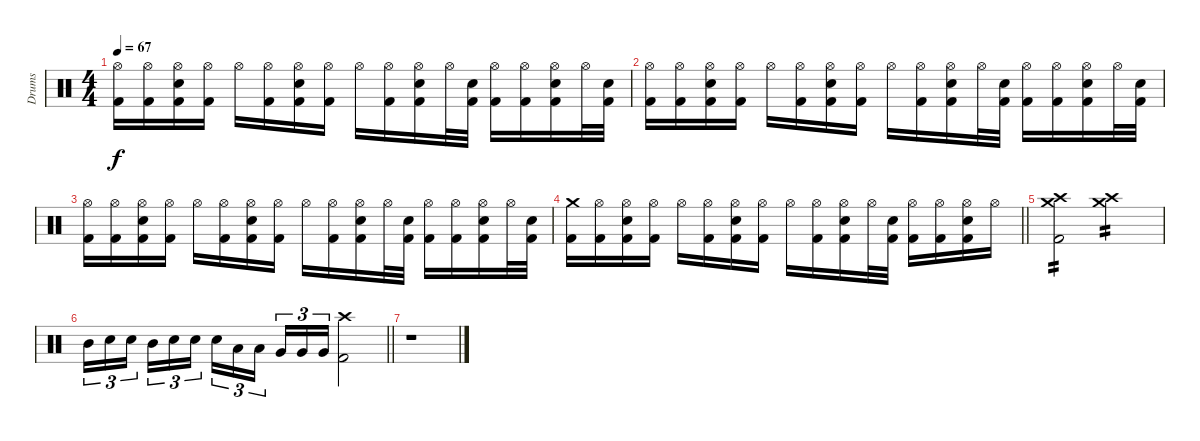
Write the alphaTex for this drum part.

\track ("Drums" "Drums") {instrument percussion}
\staff {score}
\articulation defaults
\ts (4 4)
\tempo 67
\clef neutral
\ks c
("Kick (hit) 2" "Hi-Hat (open)").16{dy f} ("Kick (hit) 2" "Hi-Hat (open)").16 ("Kick (hit) 2" "Snare (hit) 2" "Hi-Hat (open)").16 ("Kick (hit) 2" "Hi-Hat (open)").16 "Hi-Hat (open)".16 ("Kick (hit) 2" "Hi-Hat (open)").16 ("Kick (hit) 2" "Snare (hit) 2" "Hi-Hat (open)").16 ("Kick (hit) 2" "Hi-Hat (open)").16 "Hi-Hat (open)".16 ("Kick (hit) 2" "Hi-Hat (open)").16 ("Kick (hit) 2" "Snare (hit) 2" "Hi-Hat (open)").16 "Hi-Hat (open)".32 ("Kick (hit) 2" "Snare (hit) 2").32 ("Kick (hit) 2" "Hi-Hat (open)").16 ("Kick (hit) 2" "Hi-Hat (open)").16 ("Kick (hit) 2" "Snare (hit) 2" "Hi-Hat (open)").16 "Hi-Hat (open)".32 ("Kick (hit) 2" "Snare (hit) 2").32 |
("Kick (hit) 2" "Hi-Hat (open)").16 ("Kick (hit) 2" "Hi-Hat (open)").16 ("Kick (hit) 2" "Snare (hit) 2" "Hi-Hat (open)").16 ("Kick (hit) 2" "Hi-Hat (open)").16 "Hi-Hat (open)".16 ("Kick (hit) 2" "Hi-Hat (open)").16 ("Kick (hit) 2" "Snare (hit) 2" "Hi-Hat (open)").16 ("Kick (hit) 2" "Hi-Hat (open)").16 "Hi-Hat (open)".16 ("Kick (hit) 2" "Hi-Hat (open)").16 ("Kick (hit) 2" "Snare (hit) 2" "Hi-Hat (open)").16 "Hi-Hat (open)".32 ("Kick (hit) 2" "Snare (hit) 2").32 ("Kick (hit) 2" "Hi-Hat (open)").16 ("Kick (hit) 2" "Hi-Hat (open)").16 ("Kick (hit) 2" "Snare (hit) 2" "Hi-Hat (open)").16 "Hi-Hat (open)".32 ("Kick (hit) 2" "Snare (hit) 2").32 |
("Kick (hit) 2" "Hi-Hat (open)").16 ("Kick (hit) 2" "Hi-Hat (open)").16 ("Kick (hit) 2" "Snare (hit) 2" "Hi-Hat (open)").16 ("Kick (hit) 2" "Hi-Hat (open)").16 "Hi-Hat (open)".16 ("Kick (hit) 2" "Hi-Hat (open)").16 ("Kick (hit) 2" "Snare (hit) 2" "Hi-Hat (open)").16 ("Kick (hit) 2" "Hi-Hat (open)").16 "Hi-Hat (open)".16 ("Kick (hit) 2" "Hi-Hat (open)").16 ("Kick (hit) 2" "Snare (hit) 2" "Hi-Hat (open)").16 "Hi-Hat (open)".32 ("Kick (hit) 2" "Snare (hit) 2").32 ("Kick (hit) 2" "Hi-Hat (open)").16 ("Kick (hit) 2" "Hi-Hat (open)").16 ("Kick (hit) 2" "Snare (hit) 2" "Hi-Hat (open)").16 "Hi-Hat (open)".32 ("Kick (hit) 2" "Snare (hit) 2").32 |
\barLineRight lightlight
("Kick (hit) 2" "Crash medium (hit)").16 ("Kick (hit) 2" "Hi-Hat (open)").16 ("Kick (hit) 2" "Snare (hit) 2" "Hi-Hat (open)").16 ("Kick (hit) 2" "Hi-Hat (open)").16 "Hi-Hat (open)".16 ("Kick (hit) 2" "Hi-Hat (open)").16 ("Kick (hit) 2" "Snare (hit) 2" "Hi-Hat (open)").16 ("Kick (hit) 2" "Hi-Hat (open)").16 "Hi-Hat (open)".16 ("Kick (hit) 2" "Hi-Hat (open)").16 ("Kick (hit) 2" "Snare (hit) 2" "Hi-Hat (open)").16 "Hi-Hat (open)".32 ("Kick (hit) 2" "Snare (hit) 2").32 ("Kick (hit) 2" "Hi-Hat (open)").16 ("Kick (hit) 2" "Hi-Hat (open)").16 ("Kick (hit) 2" "Snare (hit) 2" "Hi-Hat (open)").16 "Hi-Hat (open)".16 |
("Kick (hit) 2" "Crash high (hit)" "Crash medium (hit)").2{tp 2} ("Crash medium (hit)" "Crash high (hit)").2{tp 2} |
\barLineRight lightlight "Mid Tom (hit)".16{tu (3 2)} "Snare (hit) 2".16{tu (3 2)} "Snare (hit) 2".16{tu (3 2) beam splitsecondary} "Mid Tom (hit)".16{tu (3 2)} "Snare (hit) 2".16{tu (3 2)} "Snare (hit) 2".16{tu (3 2)} "Snare (hit) 2".16{tu (3 2)} "Low Tom (hit)".16{tu (3 2)} "Low Tom (hit)".16{tu (3 2) beam splitsecondary} "Very Low Tom (hit)".16{tu (3 2)} "Very Low Tom (hit)".16{tu (3 2)} "Very Low Tom (hit)".16{tu (3 2)}
("Kick (hit) 2" "Crash high (hit)").2 |
r.1
